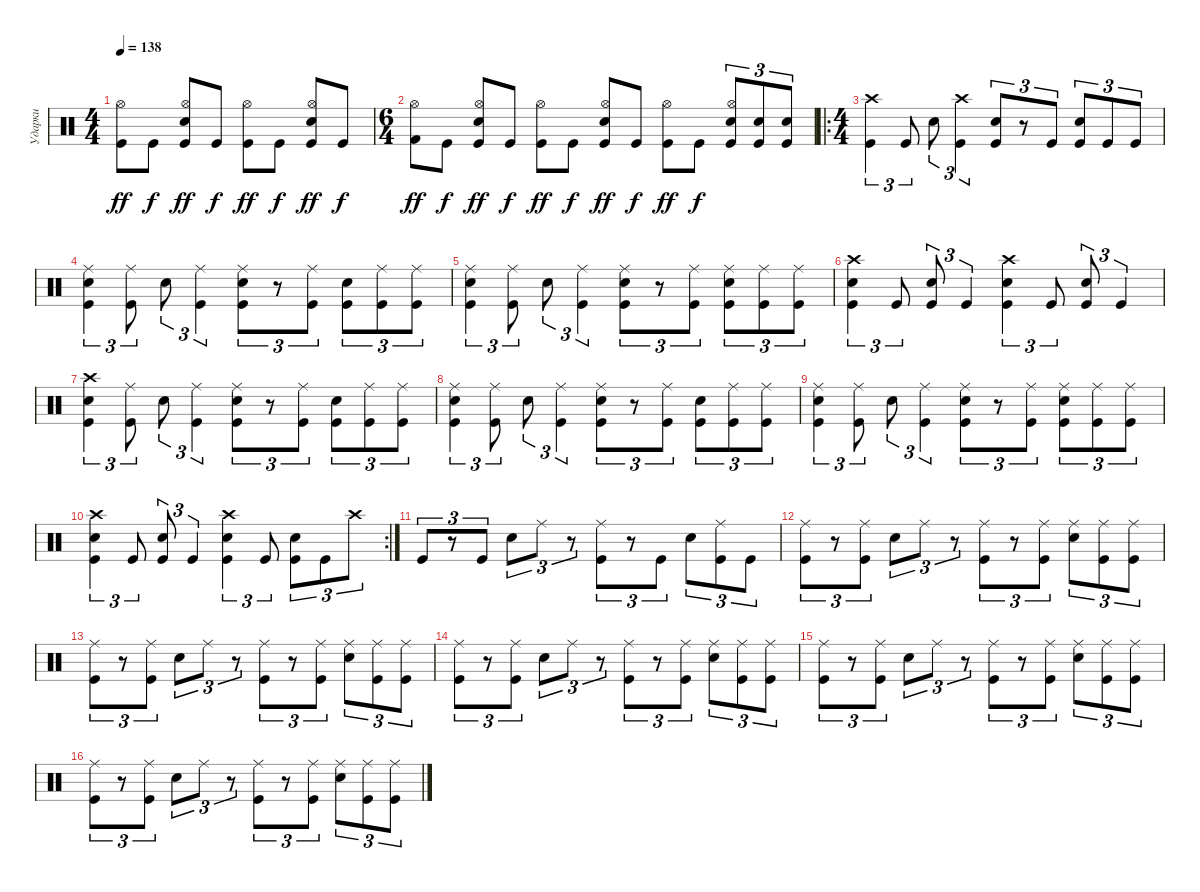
\track ("Ударки" "Ударки") {instrument percussion}
\staff {score}
\articulation defaults
\ts (4 4)
\tempo 138
\clef neutral
\ks c
("Kick (hit)" "Hi-Hat (open)").8{dy ff} "Kick (hit)".8{dy f} ("Kick (hit)" "Snare (hit) 2" "Hi-Hat (open)").8{dy ff} "Kick (hit)".8{dy f} ("Kick (hit)" "Hi-Hat (open)").8{dy ff} "Kick (hit)".8{dy f} ("Kick (hit)" "Snare (hit) 2" "Hi-Hat (open)").8{dy ff} "Kick (hit)".8{dy f} |
\ts (6 4)
("Kick (hit) 2" "Hi-Hat (open)").8{dy ff} "Kick (hit)".8{dy f} ("Kick (hit)" "Snare (hit) 2" "Hi-Hat (open)").8{dy ff} "Kick (hit)".8{dy f} ("Kick (hit)" "Hi-Hat (open)").8{dy ff} "Kick (hit)".8{dy f} ("Kick (hit)" "Snare (hit) 2" "Hi-Hat (open)").8{dy ff} "Kick (hit)".8{dy f} ("Kick (hit)" "Hi-Hat (open)").8{dy ff} "Kick (hit)".8{dy f} ("Hi-Hat (open)" "Kick (hit)" "Snare (hit) 2").8{tu (3 2)} ("Kick (hit)" "Snare (hit) 2").8{tu (3 2)} ("Snare (hit) 2" "Kick (hit)").8{tu (3 2)} |
\ro
\ts (4 4)
("Crash high (hit)" "Kick (hit)").4{tu (3 2)} "Kick (hit)".8{tu (3 2)} "Snare (hit) 2".8{tu (3 2)} ("Kick (hit)" "Crash high (hit)").4{tu (3 2)} ("Kick (hit)" "Snare (hit) 2").8{tu (3 2)} r.8{tu (3 2)} "Kick (hit)".8{tu (3 2)} ("Snare (hit) 2" "Kick (hit)").8{tu (3 2)} "Kick (hit)".8{tu (3 2)} "Kick (hit)".8{tu (3 2)} |
("Ride (middle)" "Kick (hit)" "Snare (hit) 2").4{tu (3 2)} ("Kick (hit)" "Ride (middle)").8{tu (3 2)} "Snare (hit) 2".8{tu (3 2)} ("Kick (hit)" "Ride (middle)").4{tu (3 2)} ("Kick (hit)" "Snare (hit) 2" "Ride (middle)").8{tu (3 2)} r.8{tu (3 2)} ("Kick (hit)" "Ride (middle)").8{tu (3 2)} ("Snare (hit) 2" "Kick (hit)").8{tu (3 2)} ("Kick (hit)" "Ride (middle)").8{tu (3 2)} ("Kick (hit)" "Ride (middle)").8{tu (3 2)} |
("Ride (middle)" "Kick (hit)" "Snare (hit) 2").4{tu (3 2)} ("Kick (hit)" "Ride (middle)").8{tu (3 2)} "Snare (hit) 2".8{tu (3 2)} ("Kick (hit)" "Ride (middle)").4{tu (3 2)} ("Kick (hit)" "Snare (hit) 2" "Ride (middle)").8{tu (3 2)} r.8{tu (3 2)} ("Kick (hit)" "Ride (middle)").8{tu (3 2)} ("Snare (hit) 2" "Kick (hit)" "Ride (middle)").8{tu (3 2)} ("Kick (hit)" "Ride (middle)").8{tu (3 2)} ("Kick (hit)" "Ride (middle)").8{tu (3 2)} |
("Kick (hit)" "Snare (hit) 2" "Crash high (hit)").4{tu (3 2)} "Kick (hit)".8{tu (3 2)} ("Kick (hit)" "Snare (hit) 2").8{tu (3 2)} "Kick (hit)".4{tu (3 2)} ("Kick (hit)" "Snare (hit) 2" "Crash high (hit)").4{tu (3 2)} "Kick (hit)".8{tu (3 2)} ("Kick (hit)" "Snare (hit) 2").8{tu (3 2)} "Kick (hit)".4{tu (3 2)} |
("Crash high (hit)" "Kick (hit)" "Snare (hit) 2").4{tu (3 2)} ("Kick (hit)" "Ride (middle)").8{tu (3 2)} "Snare (hit) 2".8{tu (3 2)} ("Kick (hit)" "Ride (middle)").4{tu (3 2)} ("Kick (hit)" "Snare (hit) 2" "Ride (middle)").8{tu (3 2)} r.8{tu (3 2)} ("Kick (hit)" "Ride (middle)").8{tu (3 2)} ("Snare (hit) 2" "Kick (hit)").8{tu (3 2)} ("Kick (hit)" "Ride (middle)").8{tu (3 2)} ("Kick (hit)" "Ride (middle)").8{tu (3 2)} |
("Ride (middle)" "Kick (hit)" "Snare (hit) 2").4{tu (3 2)} ("Kick (hit)" "Ride (middle)").8{tu (3 2)} "Snare (hit) 2".8{tu (3 2)} ("Kick (hit)" "Ride (middle)").4{tu (3 2)} ("Kick (hit)" "Snare (hit) 2" "Ride (middle)").8{tu (3 2)} r.8{tu (3 2)} ("Kick (hit)" "Ride (middle)").8{tu (3 2)} ("Snare (hit) 2" "Kick (hit)").8{tu (3 2)} ("Kick (hit)" "Ride (middle)").8{tu (3 2)} ("Kick (hit)" "Ride (middle)").8{tu (3 2)} |
("Ride (middle)" "Kick (hit)" "Snare (hit) 2").4{tu (3 2)} ("Kick (hit)" "Ride (middle)").8{tu (3 2)} "Snare (hit) 2".8{tu (3 2)} ("Kick (hit)" "Ride (middle)").4{tu (3 2)} ("Kick (hit)" "Snare (hit) 2" "Ride (middle)").8{tu (3 2)} r.8{tu (3 2)} ("Kick (hit)" "Ride (middle)").8{tu (3 2)} ("Snare (hit) 2" "Kick (hit)" "Ride (middle)").8{tu (3 2)} ("Kick (hit)" "Ride (middle)").8{tu (3 2)} ("Kick (hit)" "Ride (middle)").8{tu (3 2)} |
\rc 2
("Kick (hit)" "Snare (hit) 2" "Crash high (hit)").4{tu (3 2)} "Kick (hit)".8{tu (3 2)} ("Kick (hit)" "Snare (hit) 2").8{tu (3 2)} "Kick (hit)".4{tu (3 2)} ("Kick (hit)" "Snare (hit) 2" "Crash high (hit)").4{tu (3 2)} "Kick (hit)".8{tu (3 2)} ("Kick (hit)" "Snare (hit) 2").8{tu (3 2)} "Kick (hit)".8{tu (3 2)} "Crash high (hit)".8{tu (3 2)} |
"Kick (hit)".8{tu (3 2)} r.8{tu (3 2)} "Kick (hit)".8{tu (3 2)} "Snare (hit) 2".8{tu (3 2)} "Ride (middle)".8{tu (3 2)} r.8{tu (3 2)} ("Kick (hit)" "Ride (middle)").8{tu (3 2)} r.8{tu (3 2)} "Kick (hit)".8{tu (3 2)} "Snare (hit) 2".8{tu (3 2)} ("Kick (hit)" "Ride (middle)").8{tu (3 2)} "Kick (hit)".8{tu (3 2)} |
("Kick (hit)" "Ride (middle)").8{tu (3 2)} r.8{tu (3 2)} ("Kick (hit)" "Ride (middle)").8{tu (3 2)} "Snare (hit) 2".8{tu (3 2)} "Ride (middle)".8{tu (3 2)} r.8{tu (3 2)} ("Kick (hit)" "Ride (middle)").8{tu (3 2)} r.8{tu (3 2)} ("Ride (middle)" "Kick (hit)").8{tu (3 2)} ("Ride (middle)" "Snare (hit) 2").8{tu (3 2)} ("Kick (hit)" "Ride (middle)").8{tu (3 2)} ("Kick (hit)" "Ride (middle)").8{tu (3 2)} |
("Kick (hit)" "Ride (middle)").8{tu (3 2)} r.8{tu (3 2)} ("Kick (hit)" "Ride (middle)").8{tu (3 2)} "Snare (hit) 2".8{tu (3 2)} "Ride (middle)".8{tu (3 2)} r.8{tu (3 2)} ("Kick (hit)" "Ride (middle)").8{tu (3 2)} r.8{tu (3 2)} ("Ride (middle)" "Kick (hit)").8{tu (3 2)} ("Ride (middle)" "Snare (hit) 2").8{tu (3 2)} ("Kick (hit)" "Ride (middle)").8{tu (3 2)} ("Kick (hit)" "Ride (middle)").8{tu (3 2)} |
("Kick (hit)" "Ride (middle)").8{tu (3 2)} r.8{tu (3 2)} ("Kick (hit)" "Ride (middle)").8{tu (3 2)} "Snare (hit) 2".8{tu (3 2)} "Ride (middle)".8{tu (3 2)} r.8{tu (3 2)} ("Kick (hit)" "Ride (middle)").8{tu (3 2)} r.8{tu (3 2)} ("Ride (middle)" "Kick (hit)").8{tu (3 2)} ("Ride (middle)" "Snare (hit) 2").8{tu (3 2)} ("Kick (hit)" "Ride (middle)").8{tu (3 2)} ("Kick (hit)" "Ride (middle)").8{tu (3 2)} |
("Kick (hit)" "Ride (middle)").8{tu (3 2)} r.8{tu (3 2)} ("Kick (hit)" "Ride (middle)").8{tu (3 2)} "Snare (hit) 2".8{tu (3 2)} "Ride (middle)".8{tu (3 2)} r.8{tu (3 2)} ("Kick (hit)" "Ride (middle)").8{tu (3 2)} r.8{tu (3 2)} ("Ride (middle)" "Kick (hit)").8{tu (3 2)} ("Ride (middle)" "Snare (hit) 2").8{tu (3 2)} ("Kick (hit)" "Ride (middle)").8{tu (3 2)} ("Kick (hit)" "Ride (middle)").8{tu (3 2)} |
("Kick (hit)" "Ride (middle)").8{tu (3 2)} r.8{tu (3 2)} ("Kick (hit)" "Ride (middle)").8{tu (3 2)} "Snare (hit) 2".8{tu (3 2)} "Ride (middle)".8{tu (3 2)} r.8{tu (3 2)} ("Kick (hit)" "Ride (middle)").8{tu (3 2)} r.8{tu (3 2)} ("Ride (middle)" "Kick (hit)").8{tu (3 2)} ("Ride (middle)" "Snare (hit) 2").8{tu (3 2)} ("Kick (hit)" "Ride (middle)").8{tu (3 2)} ("Kick (hit)" "Ride (middle)").8{tu (3 2)}
